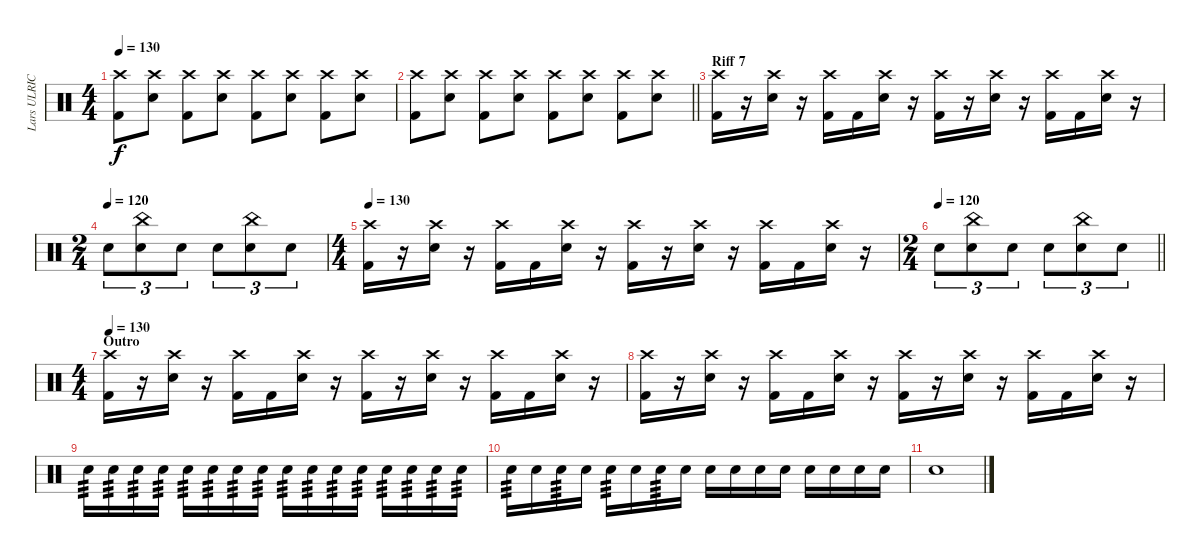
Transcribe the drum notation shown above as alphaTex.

\track ("Lars ULRICH" "Lars ULRIC") {instrument percussion}
\staff {score}
\articulation defaults
\ts (4 4)
\tempo 130
\clef neutral
\ks c
("Crash high (hit)" "Kick (hit) 2").8{dy f} ("Crash high (hit)" "Snare (hit) 2").8 ("Crash high (hit)" "Kick (hit) 2").8 ("Crash high (hit)" "Snare (hit) 2").8 ("Crash high (hit)" "Kick (hit) 2").8 ("Crash high (hit)" "Snare (hit) 2").8 ("Crash high (hit)" "Kick (hit) 2").8 ("Crash high (hit)" "Snare (hit) 2").8 |
\barLineRight lightlight
("Crash high (hit)" "Kick (hit) 2").8 ("Crash high (hit)" "Snare (hit) 2").8 ("Crash high (hit)" "Kick (hit) 2").8 ("Crash high (hit)" "Snare (hit) 2").8 ("Crash high (hit)" "Kick (hit) 2").8 ("Crash high (hit)" "Snare (hit) 2").8 ("Crash high (hit)" "Kick (hit) 2").8 ("Crash high (hit)" "Snare (hit) 2").8 |
\section ("" "Riff 7")
("Crash high (hit)" "Kick (hit) 2").16 r.16 ("Crash high (hit)" "Snare (hit) 2").16 r.16 ("Crash high (hit)" "Kick (hit) 2").16 "Kick (hit) 2".16 ("Crash high (hit)" "Snare (hit) 2").16 r.16 ("Crash high (hit)" "Kick (hit) 2").16 r.16 ("Crash high (hit)" "Snare (hit) 2").16 r.16 ("Crash high (hit)" "Kick (hit) 2").16 "Kick (hit) 2".16 ("Crash high (hit)" "Snare (hit) 2").16 r.16 |
\ts (2 4)
\tempo (120)
"Snare (hit) 2".8{tu (3 2)} ("China (hit)" "Snare (hit) 2").8{tu (3 2)} "Snare (hit) 2".8{tu (3 2)} "Snare (hit) 2".8{tu (3 2)} ("China (hit)" "Snare (hit) 2").8{tu (3 2)} "Snare (hit) 2".8{tu (3 2)} |
\ts (4 4)
\tempo 130
("Crash high (hit)" "Kick (hit) 2").16 r.16 ("Crash high (hit)" "Snare (hit) 2").16 r.16 ("Crash high (hit)" "Kick (hit) 2").16 "Kick (hit) 2".16 ("Crash high (hit)" "Snare (hit) 2").16 r.16 ("Crash high (hit)" "Kick (hit) 2").16 r.16 ("Crash high (hit)" "Snare (hit) 2").16 r.16 ("Crash high (hit)" "Kick (hit) 2").16 "Kick (hit) 2".16 ("Crash high (hit)" "Snare (hit) 2").16 r.16 |
\ts (2 4)
\tempo 120
\barLineRight lightlight "Snare (hit) 2".8{tu (3 2)}
("China (hit)" "Snare (hit) 2").8{tu (3 2)} "Snare (hit) 2".8{tu (3 2)} "Snare (hit) 2".8{tu (3 2)} ("China (hit)" "Snare (hit) 2").8{tu (3 2)} "Snare (hit) 2".8{tu (3 2)} |
\ts (4 4)
\section ("" "Outro")
\tempo 130
("Crash high (hit)" "Kick (hit) 2").16 r.16 ("Crash high (hit)" "Snare (hit) 2").16 r.16 ("Crash high (hit)" "Kick (hit) 2").16 "Kick (hit) 2".16 ("Crash high (hit)" "Snare (hit) 2").16 r.16 ("Crash high (hit)" "Kick (hit) 2").16 r.16 ("Crash high (hit)" "Snare (hit) 2").16 r.16 ("Crash high (hit)" "Kick (hit) 2").16 "Kick (hit) 2".16 ("Crash high (hit)" "Snare (hit) 2").16 r.16 |
("Crash high (hit)" "Kick (hit) 2").16 r.16 ("Crash high (hit)" "Snare (hit) 2").16 r.16 ("Crash high (hit)" "Kick (hit) 2").16 "Kick (hit) 2".16 ("Crash high (hit)" "Snare (hit) 2").16 r.16 ("Crash high (hit)" "Kick (hit) 2").16 r.16 ("Crash high (hit)" "Snare (hit) 2").16 r.16 ("Crash high (hit)" "Kick (hit) 2").16 "Kick (hit) 2".16 ("Crash high (hit)" "Snare (hit) 2").16 r.16 |
"Snare (hit) 2".16{tp 3} "Snare (hit) 2".16{tp 3} "Snare (hit) 2".16{tp 3} "Snare (hit) 2".16{tp 3} "Snare (hit) 2".16{tp 3} "Snare (hit) 2".16{tp 3} "Snare (hit) 2".16{tp 3} "Snare (hit) 2".16{tp 3} "Snare (hit) 2".16{tp 3} "Snare (hit) 2".16{tp 3} "Snare (hit) 2".16{tp 3} "Snare (hit) 2".16{tp 3} "Snare (hit) 2".16{tp 3} "Snare (hit) 2".16{tp 3} "Snare (hit) 2".16{tp 3} "Snare (hit) 2".16{tp 3} |
"Snare (hit) 2".16{tp 3} "Snare (hit) 2".16 "Snare (hit) 2".16{tp 3} "Snare (hit) 2".16 "Snare (hit) 2".16{tp 3} "Snare (hit) 2".16 "Snare (hit) 2".16{tp 3} "Snare (hit) 2".16 "Snare (hit) 2".16 "Snare (hit) 2".16 "Snare (hit) 2".16 "Snare (hit) 2".16 "Snare (hit) 2".16 "Snare (hit) 2".16 "Snare (hit) 2".16 "Snare (hit) 2".16 |
"Snare (hit) 2".1
